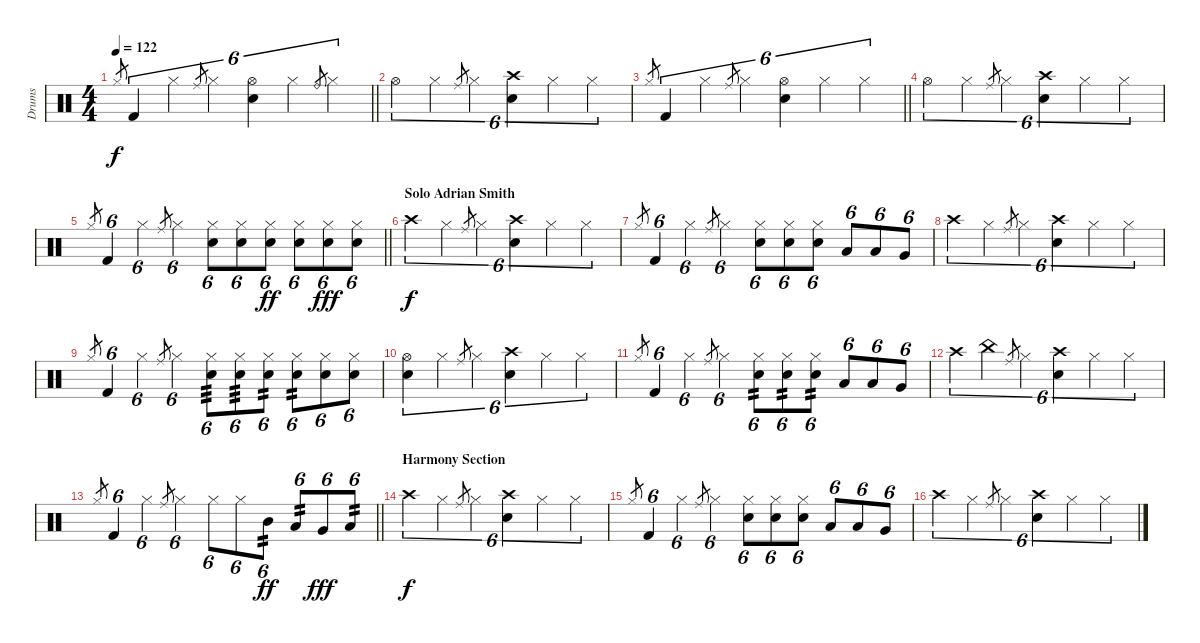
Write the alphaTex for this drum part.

\track ("Drums" "Drums") {instrument percussion}
\staff {score}
\articulation defaults
\ts (4 4)
\tempo 122
\clef neutral
\barLineRight lightlight
\ks c "Hi-Hat (closed)".8{gr dy f} "Kick (hit) 2".4{tu (6 4)} "Hi-Hat (closed)".4{tu (6 4)} "Ride (middle)".8{gr} "Hi-Hat (closed)".4{tu (6 4)}
("Hi-Hat (open)" "Snare (hit) 2").4{tu (6 4)} "Hi-Hat (closed)".4{tu (6 4)} "Ride (bell)".8{gr} "Hi-Hat (closed)".4{tu (6 4)} |
"Hi-Hat (open)".4{tu (6 4)} "Hi-Hat (closed)".4{tu (6 4)} "Ride (middle)".8{gr} "Hi-Hat (closed)".4{tu (6 4)} ("Crash high (hit)" "Snare (hit) 2").4{tu (6 4)} "Hi-Hat (closed)".4{tu (6 4)} "Hi-Hat (closed)".4{tu (6 4)} |
\barLineRight lightlight "Hi-Hat (closed)".8{gr} "Kick (hit) 2".4{tu (6 4)} "Hi-Hat (closed)".4{tu (6 4)} "Ride (middle)".8{gr} "Hi-Hat (closed)".4{tu (6 4)}
("Hi-Hat (open)" "Snare (hit) 2").4{tu (6 4)} "Hi-Hat (closed)".4{tu (6 4)} "Hi-Hat (closed)".4{tu (6 4)} |
"Hi-Hat (open)".4{tu (6 4)} "Hi-Hat (closed)".4{tu (6 4)} "Ride (middle)".8{gr} "Hi-Hat (closed)".4{tu (6 4)} ("Crash high (hit)" "Snare (hit) 2").4{tu (6 4)} "Hi-Hat (closed)".4{tu (6 4)} "Hi-Hat (closed)".4{tu (6 4)} |
\barLineRight lightlight "Hi-Hat (closed)".8{gr} "Kick (hit) 2".4{tu (6 4)} "Hi-Hat (closed)".4{tu (6 4)} "Ride (middle)".8{gr} "Hi-Hat (closed)".4{tu (6 4)}
("Hi-Hat (closed)" "Snare (hit) 2").8{tu (6 4)} ("Hi-Hat (closed)" "Snare (hit) 2").8{tu (6 4)} ("Hi-Hat (closed)" "Snare (hit) 2").8{tu (6 4) dy ff} ("Hi-Hat (closed)" "Snare (hit) 2").8{tu (6 4)} ("Hi-Hat (closed)" "Snare (hit) 2").8{tu (6 4) dy fff} ("Hi-Hat (closed)" "Snare (hit) 2").8{tu (6 4)} |
\section ("" "Solo Adrian Smith")
"Crash high (hit)".4{tu (6 4) dy f} "Hi-Hat (closed)".4{tu (6 4)} "Ride (middle)".8{gr} "Hi-Hat (closed)".4{tu (6 4)} ("Crash high (hit)" "Snare (hit) 2").4{tu (6 4)} "Hi-Hat (closed)".4{tu (6 4)} "Hi-Hat (closed)".4{tu (6 4)} |
"Hi-Hat (closed)".8{gr} "Kick (hit) 2".4{tu (6 4)} "Hi-Hat (closed)".4{tu (6 4)} "Ride (middle)".8{gr} "Hi-Hat (closed)".4{tu (6 4)} ("Hi-Hat (closed)" "Snare (hit) 2").8{tu (6 4)} ("Hi-Hat (closed)" "Snare (hit) 2").8{tu (6 4)} ("Hi-Hat (closed)" "Snare (hit) 2").8{tu (6 4)} "Low Tom (hit)".8{tu (6 4)} "Low Tom (hit)".8{tu (6 4)} "Very Low Tom (hit)".8{tu (6 4)} |
"Crash high (hit)".4{tu (6 4)} "Hi-Hat (closed)".4{tu (6 4)} "Ride (middle)".8{gr} "Hi-Hat (closed)".4{tu (6 4)} ("Crash high (hit)" "Snare (hit) 2").4{tu (6 4)} "Hi-Hat (closed)".4{tu (6 4)} "Hi-Hat (closed)".4{tu (6 4)} |
"Hi-Hat (closed)".8{gr} "Kick (hit) 2".4{tu (6 4)} "Hi-Hat (closed)".4{tu (6 4)} "Ride (middle)".8{gr} "Hi-Hat (closed)".4{tu (6 4)} ("Hi-Hat (closed)" "Snare (hit) 2").8{tu (6 4) tp 3} ("Hi-Hat (closed)" "Snare (hit) 2").8{tu (6 4) tp 3} ("Hi-Hat (closed)" "Snare (hit) 2").8{tu (6 4) tp 2} ("Hi-Hat (closed)" "Snare (hit) 2").8{tu (6 4) tp 2} ("Hi-Hat (closed)" "Snare (hit) 2").8{tu (6 4)} ("Hi-Hat (closed)" "Snare (hit) 2").8{tu (6 4)} |
("Hi-Hat (open)" "Snare (hit) 2").4{tu (6 4)} "Hi-Hat (closed)".4{tu (6 4)} "Ride (middle)".8{gr} "Hi-Hat (closed)".4{tu (6 4)} ("Crash high (hit)" "Snare (hit) 2").4{tu (6 4)} "Hi-Hat (closed)".4{tu (6 4)} "Hi-Hat (closed)".4{tu (6 4)} |
"Hi-Hat (closed)".8{gr} "Kick (hit) 2".4{tu (6 4)} "Hi-Hat (closed)".4{tu (6 4)} "Ride (middle)".8{gr} "Hi-Hat (closed)".4{tu (6 4)} ("Hi-Hat (closed)" "Snare (hit) 2").8{tu (6 4) tp 2} ("Hi-Hat (closed)" "Snare (hit) 2").8{tu (6 4) tp 2} ("Hi-Hat (closed)" "Snare (hit) 2").8{tu (6 4) tp 2} "Low Tom (hit)".8{tu (6 4)} "Low Tom (hit)".8{tu (6 4)} "Very Low Tom (hit)".8{tu (6 4)} |
"Crash high (hit)".4{tu (6 4)} "China (hit)".4{tu (6 4)} "Ride (middle)".8{gr} "Hi-Hat (closed)".4{tu (6 4)} ("Crash high (hit)" "Snare (hit) 2").4{tu (6 4)} "Hi-Hat (closed)".4{tu (6 4)} "Hi-Hat (closed)".4{tu (6 4)} |
\barLineRight lightlight "Hi-Hat (closed)".8{gr} "Kick (hit) 2".4{tu (6 4)} "Hi-Hat (closed)".4{tu (6 4)} "Ride (middle)".8{gr} "Hi-Hat (closed)".4{tu (6 4)} "Hi-Hat (closed)".8{tu (6 4)} "Hi-Hat (closed)".8{tu (6 4)} "Mid Tom (hit)".8{tu (6 4) tp 2 dy ff} "Low Tom (hit)".8{tu (6 4) tp 2} "Very Low Tom (hit)".8{tu (6 4) dy fff} "Low Tom (hit)".8{tu (6 4) tp 2}
|
\section ("" "Harmony Section")
"Crash high (hit)".4{tu (6 4) dy f} "Hi-Hat (closed)".4{tu (6 4)} "Ride (middle)".8{gr} "Hi-Hat (closed)".4{tu (6 4)} ("Crash high (hit)" "Snare (hit) 2").4{tu (6 4)} "Hi-Hat (closed)".4{tu (6 4)} "Hi-Hat (closed)".4{tu (6 4)} |
"Hi-Hat (closed)".8{gr} "Kick (hit) 2".4{tu (6 4)} "Hi-Hat (closed)".4{tu (6 4)} "Ride (middle)".8{gr} "Hi-Hat (closed)".4{tu (6 4)} ("Hi-Hat (closed)" "Snare (hit) 2").8{tu (6 4)} ("Hi-Hat (closed)" "Snare (hit) 2").8{tu (6 4)} ("Hi-Hat (closed)" "Snare (hit) 2").8{tu (6 4)} "Low Tom (hit)".8{tu (6 4)} "Low Tom (hit)".8{tu (6 4)} "Very Low Tom (hit)".8{tu (6 4)} |
"Crash high (hit)".4{tu (6 4)} "Hi-Hat (closed)".4{tu (6 4)} "Ride (middle)".8{gr} "Hi-Hat (closed)".4{tu (6 4)} ("Crash high (hit)" "Snare (hit) 2").4{tu (6 4)} "Hi-Hat (closed)".4{tu (6 4)} "Hi-Hat (closed)".4{tu (6 4)}
